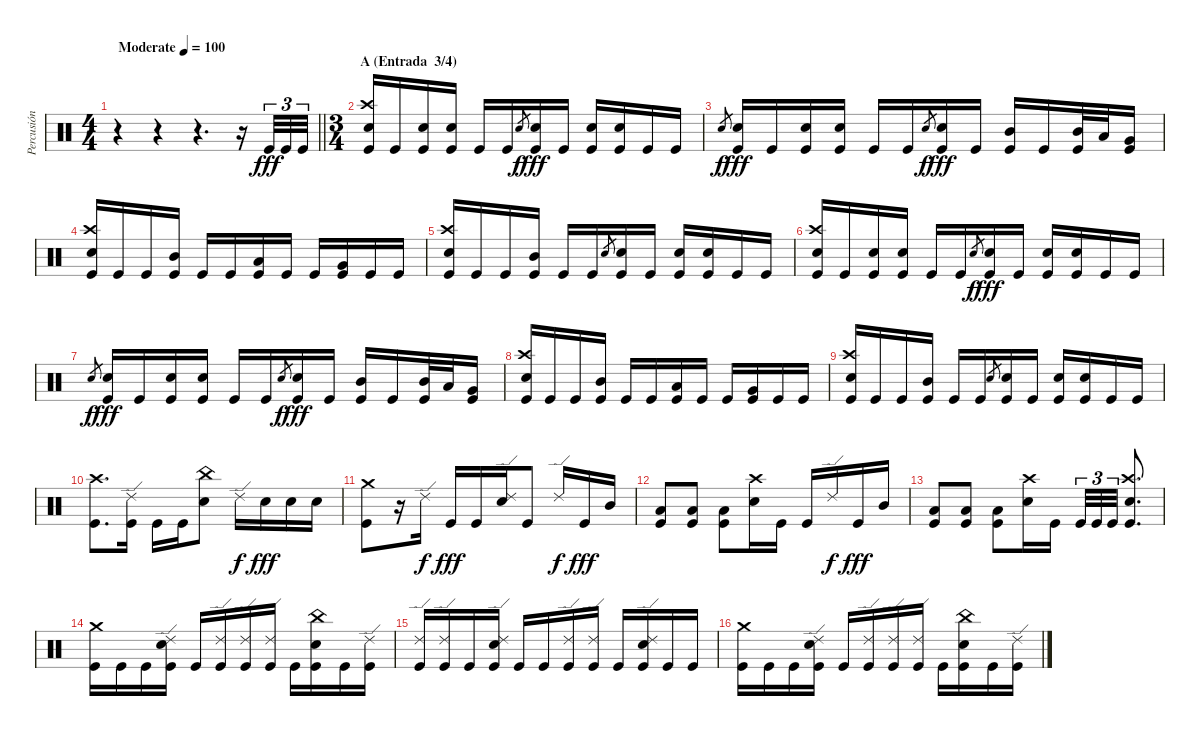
\track ("Percusión" "Percusión") {instrument percussion}
\staff {score}
\articulation defaults
\ts (4 4)
\tempo (100 "Moderate")
\clef neutral
\barLineRight lightlight
\ks c
r.4{dy fff} r.4 r.4{d} r.16 "Kick (hit)".32{tu (3 2)} "Kick (hit)".32{tu (3 2)} "Kick (hit)".32{tu (3 2)} |
\ts (3 4)
\section ("" "A (Entrada  3/4)")
("Crash high (hit)" "Electric Snare (hit)" "Kick (hit)").16 "Kick (hit)".16 ("Electric Snare (hit)" "Kick (hit)").16 ("Electric Snare (hit)" "Kick (hit)").16 "Kick (hit)".16 "Kick (hit)".16 "Electric Snare (hit)".8{gr dy f} ("Electric Snare (hit)" "Kick (hit)").16{dy fff} "Kick (hit)".16 ("Electric Snare (hit)" "Kick (hit)").16 ("Electric Snare (hit)" "Kick (hit)").16 "Kick (hit)".16 "Kick (hit)".16 |
"Electric Snare (hit)".8{gr dy f} ("Electric Snare (hit)" "Kick (hit)").16{dy fff} "Kick (hit)".16 ("Electric Snare (hit)" "Kick (hit)").16 ("Electric Snare (hit)" "Kick (hit)").16 "Kick (hit)".16 "Kick (hit)".16 "Electric Snare (hit)".8{gr dy f} ("Electric Snare (hit)" "Kick (hit)").16{dy fff} "Kick (hit)".16 ("Mid Tom (hit)" "Kick (hit)").16 "Kick (hit)".16 ("Mid Tom (hit)" "Kick (hit)").32 "Low Tom (hit)".32 ("Very Low Tom (hit)" "Kick (hit)").16 |
("Crash high (hit)" "Electric Snare (hit)" "Kick (hit)").16 "Kick (hit)".16 "Kick (hit)".16 ("Mid Tom (hit)" "Kick (hit)").16 "Kick (hit)".16 "Kick (hit)".16 ("Low Tom (hit)" "Kick (hit)").16 "Kick (hit)".16 "Kick (hit)".16 ("Very Low Tom (hit)" "Kick (hit)").16 "Kick (hit)".16 "Kick (hit)".16 |
("Crash high (hit)" "Electric Snare (hit)" "Kick (hit)").16 "Kick (hit)".16 "Kick (hit)".16 ("Mid Tom (hit)" "Kick (hit)").16 "Kick (hit)".16 "Kick (hit)".16 "Electric Snare (hit)".8{gr} ("Electric Snare (hit)" "Kick (hit)").16 "Kick (hit)".16 ("Electric Snare (hit)" "Kick (hit)").16 ("Electric Snare (hit)" "Kick (hit)").16 "Kick (hit)".16 "Kick (hit)".16 |
("Crash high (hit)" "Electric Snare (hit)" "Kick (hit)").16 "Kick (hit)".16 ("Electric Snare (hit)" "Kick (hit)").16 ("Electric Snare (hit)" "Kick (hit)").16 "Kick (hit)".16 "Kick (hit)".16 "Electric Snare (hit)".8{gr dy f} ("Electric Snare (hit)" "Kick (hit)").16{dy fff} "Kick (hit)".16 ("Electric Snare (hit)" "Kick (hit)").16 ("Electric Snare (hit)" "Kick (hit)").16 "Kick (hit)".16 "Kick (hit)".16 |
"Electric Snare (hit)".8{gr dy f} ("Electric Snare (hit)" "Kick (hit)").16{dy fff} "Kick (hit)".16 ("Electric Snare (hit)" "Kick (hit)").16 ("Electric Snare (hit)" "Kick (hit)").16 "Kick (hit)".16 "Kick (hit)".16 "Electric Snare (hit)".8{gr dy f} ("Electric Snare (hit)" "Kick (hit)").16{dy fff} "Kick (hit)".16 ("Mid Tom (hit)" "Kick (hit)").16 "Kick (hit)".16 ("Mid Tom (hit)" "Kick (hit)").32 "Low Tom (hit)".32 ("Very Low Tom (hit)" "Kick (hit)").16 |
("Crash high (hit)" "Electric Snare (hit)" "Kick (hit)").16 "Kick (hit)".16 "Kick (hit)".16 ("Mid Tom (hit)" "Kick (hit)").16 "Kick (hit)".16 "Kick (hit)".16 ("Low Tom (hit)" "Kick (hit)").16 "Kick (hit)".16 "Kick (hit)".16 ("Very Low Tom (hit)" "Kick (hit)").16 "Kick (hit)".16 "Kick (hit)".16 |
("Crash high (hit)" "Electric Snare (hit)" "Kick (hit)").16 "Kick (hit)".16 "Kick (hit)".16 ("Mid Tom (hit)" "Kick (hit)").16 "Kick (hit)".16 "Kick (hit)".16 "Electric Snare (hit)".8{gr} ("Electric Snare (hit)" "Kick (hit)").16 "Kick (hit)".16 ("Electric Snare (hit)" "Kick (hit)").16 ("Electric Snare (hit)" "Kick (hit)").16 "Kick (hit)".16 "Kick (hit)".16 |
("Crash high (hit)" "Kick (hit)").8{d} ("Ride (edge) 2" "Kick (hit)").16 "Kick (hit)".16 "Kick (hit)".16 ("China (hit)" "Electric Snare (hit)").8 "Ride (edge) 2".16{dy f} "Electric Snare (hit)".16{dy fff} "Electric Snare (hit)".16 "Electric Snare (hit)".16 |
("Crash medium (hit)" "Kick (hit)").8 r.16 "Ride (edge) 2".16{dy f} "Kick (hit)".16{dy fff} "Kick (hit)".16 ("Ride (edge) 2" "Electric Snare (hit)").16 "Kick (hit)".8 "Ride (edge) 2".16{dy f} "Kick (hit)".16{dy fff} "Mid Tom (hit)".16 |
("Low Tom (hit)" "Kick (hit)").8 ("Low Tom (hit)" "Kick (hit)").8 ("Low Tom (hit)" "Kick (hit)").8 ("Crash high (hit)" "Electric Snare (hit)").16 "Kick (hit)".16 "Kick (hit)".16 "Ride (edge) 2".16{dy f} "Kick (hit)".16{dy fff} "Mid Tom (hit)".16 |
("Low Tom (hit)" "Kick (hit)").8 ("Low Tom (hit)" "Kick (hit)").8 ("Low Tom (hit)" "Kick (hit)").8 ("Crash high (hit)" "Electric Snare (hit)").16 "Kick (hit)".16 "Kick (hit)".32{tu (3 2)} "Kick (hit)".32{tu (3 2)} "Kick (hit)".32{tu (3 2)} ("Crash high (hit)" "Electric Snare (hit)" "Kick (hit)").8{d} |
("Crash medium (hit)" "Kick (hit)").16 "Kick (hit)".16 "Kick (hit)".16 ("Ride (edge) 2" "Electric Snare (hit)" "Kick (hit)").16 "Kick (hit)".16 ("Ride (edge) 2" "Kick (hit)").16 ("Ride (edge) 2" "Kick (hit)").16 ("Ride (edge) 2" "Kick (hit)").16 "Kick (hit)".16 ("China (hit)" "Electric Snare (hit)" "Kick (hit)").16 "Kick (hit)".16 ("Ride (edge) 2" "Kick (hit)").16 |
("Ride (edge) 2" "Kick (hit)").16 ("Ride (edge) 2" "Kick (hit)").16 "Kick (hit)".16 ("Ride (edge) 2" "Electric Snare (hit)" "Kick (hit)").16 "Kick (hit)".16 "Kick (hit)".16 ("Ride (edge) 2" "Kick (hit)").16 ("Ride (edge) 2" "Kick (hit)").16 "Kick (hit)".16 ("Ride (edge) 2" "Electric Snare (hit)" "Kick (hit)").16 "Kick (hit)".16 "Kick (hit)".16 |
("Crash medium (hit)" "Kick (hit)").16 "Kick (hit)".16 "Kick (hit)".16 ("Ride (edge) 2" "Electric Snare (hit)" "Kick (hit)").16 "Kick (hit)".16 ("Ride (edge) 2" "Kick (hit)").16 ("Ride (edge) 2" "Kick (hit)").16 ("Ride (edge) 2" "Kick (hit)").16 "Kick (hit)".16 ("China (hit)" "Electric Snare (hit)" "Kick (hit)").16 "Kick (hit)".16 ("Ride (edge) 2" "Kick (hit)").16
